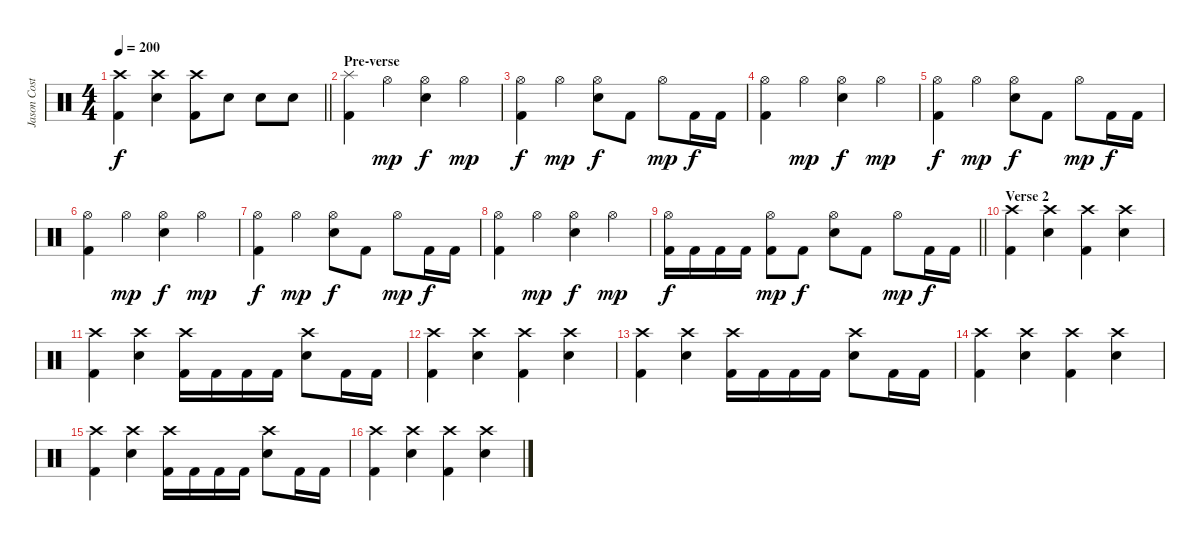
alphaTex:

\track ("Jason Costa" "Jason Cost") {instrument percussion}
\staff {score}
\articulation defaults
\ts (4 4)
\tempo 200
\clef neutral
\barLineRight lightlight
\ks c
("Crash high (hit)" "Kick (hit) 2").4{dy f} ("Crash high (hit)" "Electric Snare (hit)").4 ("Crash high (hit)" "Kick (hit) 2").8 "Electric Snare (hit)".8 "Electric Snare (hit)".8 "Electric Snare (hit)".8 |
\section ("" "Pre-verse")
("Splash (hit)" "Kick (hit) 2").4 "Hi-Hat (open)".4{dy mp} ("Hi-Hat (open)" "Electric Snare (hit)").4{dy f} "Hi-Hat (open)".4{dy mp} |
("Hi-Hat (open)" "Kick (hit) 2").4{dy f} "Hi-Hat (open)".4{dy mp} ("Hi-Hat (open)" "Electric Snare (hit)").8{dy f} "Kick (hit) 2".8 "Hi-Hat (open)".8{dy mp} "Kick (hit) 2".16{dy f} "Kick (hit) 2".16 |
("Hi-Hat (open)" "Kick (hit) 2").4 "Hi-Hat (open)".4{dy mp} ("Hi-Hat (open)" "Electric Snare (hit)").4{dy f} "Hi-Hat (open)".4{dy mp} |
("Hi-Hat (open)" "Kick (hit) 2").4{dy f} "Hi-Hat (open)".4{dy mp} ("Hi-Hat (open)" "Electric Snare (hit)").8{dy f} "Kick (hit) 2".8 "Hi-Hat (open)".8{dy mp} "Kick (hit) 2".16{dy f} "Kick (hit) 2".16 |
("Hi-Hat (open)" "Kick (hit) 2").4 "Hi-Hat (open)".4{dy mp} ("Hi-Hat (open)" "Electric Snare (hit)").4{dy f} "Hi-Hat (open)".4{dy mp} |
("Hi-Hat (open)" "Kick (hit) 2").4{dy f} "Hi-Hat (open)".4{dy mp} ("Hi-Hat (open)" "Electric Snare (hit)").8{dy f} "Kick (hit) 2".8 "Hi-Hat (open)".8{dy mp} "Kick (hit) 2".16{dy f} "Kick (hit) 2".16 |
("Hi-Hat (open)" "Kick (hit) 2").4 "Hi-Hat (open)".4{dy mp} ("Hi-Hat (open)" "Electric Snare (hit)").4{dy f} "Hi-Hat (open)".4{dy mp} |
\barLineRight lightlight
("Hi-Hat (open)" "Kick (hit) 2").16{dy f} "Kick (hit) 2".16 "Kick (hit) 2".16 "Kick (hit) 2".16 ("Hi-Hat (open)" "Kick (hit) 2").8{dy mp} "Kick (hit) 2".8{dy f} ("Hi-Hat (open)" "Electric Snare (hit)").8 "Kick (hit) 2".8 "Hi-Hat (open)".8{dy mp} "Kick (hit) 2".16{dy f} "Kick (hit) 2".16 |
\section ("" "Verse 2")
("Crash high (hit)" "Kick (hit) 2").4 ("Crash high (hit)" "Electric Snare (hit)").4 ("Crash high (hit)" "Kick (hit) 2").4 ("Crash high (hit)" "Electric Snare (hit)").4 |
("Crash high (hit)" "Kick (hit) 2").4 ("Crash high (hit)" "Electric Snare (hit)").4 ("Crash high (hit)" "Kick (hit) 2").16 "Kick (hit) 2".16 "Kick (hit) 2".16 "Kick (hit) 2".16 ("Crash high (hit)" "Electric Snare (hit)").8 "Kick (hit) 2".16 "Kick (hit) 2".16 |
("Crash high (hit)" "Kick (hit) 2").4 ("Crash high (hit)" "Electric Snare (hit)").4 ("Crash high (hit)" "Kick (hit) 2").4 ("Crash high (hit)" "Electric Snare (hit)").4 |
("Crash high (hit)" "Kick (hit) 2").4 ("Crash high (hit)" "Electric Snare (hit)").4 ("Crash high (hit)" "Kick (hit) 2").16 "Kick (hit) 2".16 "Kick (hit) 2".16 "Kick (hit) 2".16 ("Crash high (hit)" "Electric Snare (hit)").8 "Kick (hit) 2".16 "Kick (hit) 2".16 |
("Crash high (hit)" "Kick (hit) 2").4 ("Crash high (hit)" "Electric Snare (hit)").4 ("Crash high (hit)" "Kick (hit) 2").4 ("Crash high (hit)" "Electric Snare (hit)").4 |
("Crash high (hit)" "Kick (hit) 2").4 ("Crash high (hit)" "Electric Snare (hit)").4 ("Crash high (hit)" "Kick (hit) 2").16 "Kick (hit) 2".16 "Kick (hit) 2".16 "Kick (hit) 2".16 ("Crash high (hit)" "Electric Snare (hit)").8 "Kick (hit) 2".16 "Kick (hit) 2".16 |
("Crash high (hit)" "Kick (hit) 2").4 ("Crash high (hit)" "Electric Snare (hit)").4 ("Crash high (hit)" "Kick (hit) 2").4 ("Crash high (hit)" "Electric Snare (hit)").4
